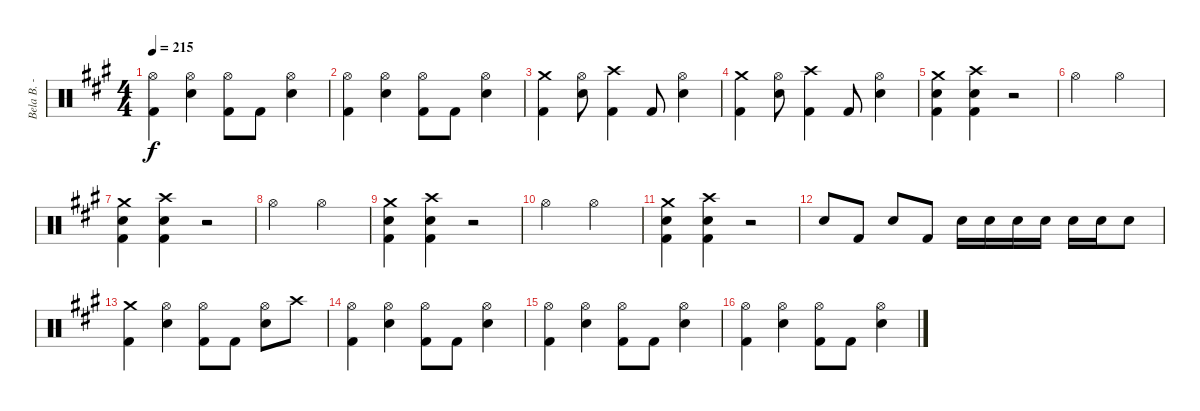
\track ("Bela B. - Schlagzeug" "Bela B. - ") {instrument percussion}
\staff {score}
\articulation defaults
\ts (4 4)
\tempo 215
\clef neutral
\ks a
("Hi-Hat (open)" "Kick (hit) 2").4{dy f} ("Hi-Hat (open)" "Snare (hit) 2").4 ("Hi-Hat (open)" "Kick (hit) 2").8 "Kick (hit) 2".8 ("Hi-Hat (open)" "Snare (hit) 2").4 |
("Hi-Hat (open)" "Kick (hit) 2").4 ("Hi-Hat (open)" "Snare (hit) 2").4 ("Hi-Hat (open)" "Kick (hit) 2").8 "Kick (hit) 2".8 ("Hi-Hat (open)" "Snare (hit) 2").4 |
("Crash medium (hit)" "Kick (hit) 2").4 ("Hi-Hat (open)" "Snare (hit) 2").8 ("Crash high (hit)" "Kick (hit) 2").4 "Kick (hit) 2".8 ("Hi-Hat (open)" "Snare (hit) 2").4 |
("Crash medium (hit)" "Kick (hit) 2").4 ("Hi-Hat (open)" "Snare (hit) 2").8 ("Crash high (hit)" "Kick (hit) 2").4 "Kick (hit) 2".8 ("Hi-Hat (open)" "Snare (hit) 2").4 |
("Crash medium (hit)" "Snare (hit) 2" "Kick (hit) 2").4 ("Crash high (hit)" "Snare (hit) 2" "Kick (hit) 2").4 r.2 |
"Hi-Hat (open)".2 "Hi-Hat (open)".2 |
("Crash medium (hit)" "Snare (hit) 2" "Kick (hit) 2").4 ("Crash high (hit)" "Snare (hit) 2" "Kick (hit) 2").4 r.2 |
"Hi-Hat (open)".2 "Hi-Hat (open)".2 |
("Crash medium (hit)" "Snare (hit) 2" "Kick (hit) 2").4 ("Crash high (hit)" "Snare (hit) 2" "Kick (hit) 2").4 r.2 |
"Hi-Hat (open)".2 "Hi-Hat (open)".2 |
("Crash medium (hit)" "Snare (hit) 2" "Kick (hit) 2").4 ("Crash high (hit)" "Snare (hit) 2" "Kick (hit) 2").4 r.2 |
"Snare (hit) 2".8 "Kick (hit) 2".8 "Snare (hit) 2".8 "Kick (hit) 2".8 "Snare (hit) 2".16 "Snare (hit) 2".16 "Snare (hit) 2".16 "Snare (hit) 2".16 "Snare (hit) 2".16 "Snare (hit) 2".16 "Snare (hit) 2".8 |
("Crash medium (hit)" "Kick (hit) 2").4 ("Hi-Hat (open)" "Snare (hit) 2").4 ("Hi-Hat (open)" "Kick (hit) 2").8 "Kick (hit) 2".8 ("Hi-Hat (open)" "Snare (hit) 2").8 "Crash high (hit)".8 |
("Hi-Hat (open)" "Kick (hit) 2").4 ("Hi-Hat (open)" "Snare (hit) 2").4 ("Hi-Hat (open)" "Kick (hit) 2").8 "Kick (hit) 2".8 ("Hi-Hat (open)" "Snare (hit) 2").4 |
("Hi-Hat (open)" "Kick (hit) 2").4 ("Hi-Hat (open)" "Snare (hit) 2").4 ("Hi-Hat (open)" "Kick (hit) 2").8 "Kick (hit) 2".8 ("Hi-Hat (open)" "Snare (hit) 2").4 |
("Hi-Hat (open)" "Kick (hit) 2").4 ("Hi-Hat (open)" "Snare (hit) 2").4 ("Hi-Hat (open)" "Kick (hit) 2").8 "Kick (hit) 2".8 ("Hi-Hat (open)" "Snare (hit) 2").4
